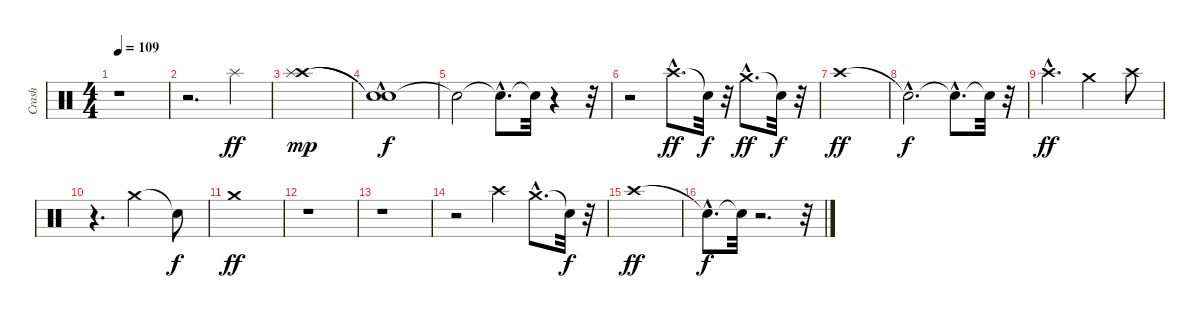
\track ("Crash" "Crash") {instrument percussion}
\staff {score}
\articulation defaults
\ts (4 4)
\tempo 109
\clef neutral
\ks c
r.1{dy ff} |
r.2{d} "Splash (hit)".4 |
("Crash high (hit)" "Splash (hit)").1{dy mp} |
("Snare (hit)"{t} "Snare (hit)"{hac t}).1{dy f} |
"Snare (hit)"{t}.2 "Snare (hit)"{hac t}.8{d} "Snare (hit)"{t}.32 r.4 r.32 |
r.2 "Crash high (hit)"{hac}.8{d dy ff} "Snare (hit)"{t}.32{dy f} r.32 "Crash medium (hit)"{hac}.8{d dy ff} "Snare (hit)"{t}.32{dy f} r.32 |
"Crash high (hit)".1{dy ff} |
"Snare (hit)"{hac t}.2{d dy f} "Snare (hit)"{hac t}.8{d} "Snare (hit)"{t}.32 r.32 |
"Crash high (hit)"{hac}.4{d dy ff} "Crash medium (hit)".2 "Crash high (hit)".8 |
r.4{d} "Crash medium (hit)".2 "Snare (hit)"{t}.8{dy f} |
"Crash medium (hit)".1{dy ff} |
r.1 |
r.1 |
r.2 "Crash high (hit)".4 "Crash medium (hit)"{hac}.8{d} "Snare (hit)"{t}.32{dy f} r.32 |
"Crash high (hit)".1{dy ff} |
"Snare (hit)"{hac t}.8{d dy f} "Snare (hit)"{t}.32 r.2{d} r.32
